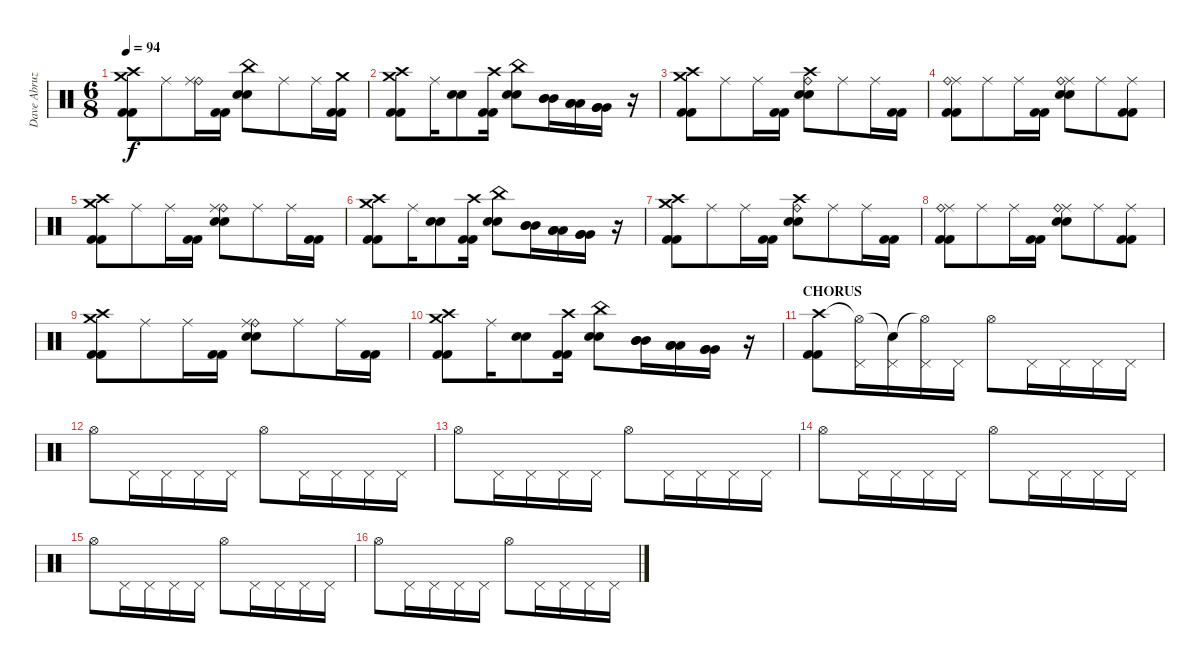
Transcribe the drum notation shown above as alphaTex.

\track ("Dave Abruzzese" "Dave Abruz") {instrument percussion}
\staff {score}
\articulation defaults
\ts (6 8)
\tempo 94
\clef neutral
\ks c
("Crash medium (hit)" "Crash high (hit)" "Kick (hit) 2" "Kick (hit) 2").8{dy f} "Ride (middle)".8 ("Ride (bell)" "Ride (middle)").16 ("Kick (hit) 2" "Kick (hit) 2").16 ("China (hit)" "Electric Snare (hit)" "Electric Snare (hit)").8 "Ride (middle)".8 "Ride (middle)".16 ("Crash medium (hit)" "Kick (hit) 2" "Kick (hit) 2").16 |
("Crash medium (hit)" "Crash high (hit)" "Kick (hit) 2" "Kick (hit) 2").8 "Ride (middle)".16 ("Electric Snare (hit)" "Electric Snare (hit)").8 ("Crash high (hit)" "Kick (hit) 2" "Kick (hit) 2").16 ("China (hit)" "Electric Snare (hit)" "Electric Snare (hit)").8 ("Mid Tom (hit)" "Mid Tom (hit)" "Mid Tom (hit)").16 ("Low Tom (hit)" "Low Tom (hit)" "Low Tom (hit)").16 ("Very Low Tom (hit)" "Very Low Tom (hit)" "Very Low Tom (hit)").16 r.16 |
("Crash medium (hit)" "Crash high (hit)" "Kick (hit) 2" "Kick (hit) 2").8 "Ride (middle)".8 "Ride (middle)".16 ("Kick (hit) 2" "Kick (hit) 2").16 ("Crash high (hit)" "Ride (bell)" "Electric Snare (hit)" "Electric Snare (hit)").8 "Ride (middle)".8 "Ride (middle)".16 ("Kick (hit) 2" "Kick (hit) 2").16 |
("Ride (middle)" "Ride (bell)" "Kick (hit) 2" "Kick (hit) 2").8 "Ride (middle)".8 "Ride (middle)".16 ("Kick (hit) 2" "Kick (hit) 2").16 ("Ride (middle)" "Ride (bell)" "Electric Snare (hit)" "Electric Snare (hit)").8 "Ride (middle)".8 ("Ride (middle)" "Kick (hit) 2" "Kick (hit) 2").8 |
("Crash medium (hit)" "Crash high (hit)" "Kick (hit) 2" "Kick (hit) 2").8 "Ride (middle)".8 "Ride (middle)".16 ("Kick (hit) 2" "Kick (hit) 2").16 ("Ride (bell)" "Ride (middle)" "Electric Snare (hit)" "Electric Snare (hit)").8 "Ride (middle)".8 "Ride (middle)".16 ("Kick (hit) 2" "Kick (hit) 2").16 |
("Crash medium (hit)" "Crash high (hit)" "Kick (hit) 2" "Kick (hit) 2").8 "Ride (middle)".16 ("Electric Snare (hit)" "Electric Snare (hit)").8 ("Crash high (hit)" "Kick (hit) 2" "Kick (hit) 2").16 ("China (hit)" "Electric Snare (hit)" "Electric Snare (hit)").8 ("Mid Tom (hit)" "Mid Tom (hit)" "Mid Tom (hit)").16 ("Low Tom (hit)" "Low Tom (hit)" "Low Tom (hit)").16 ("Very Low Tom (hit)" "Very Low Tom (hit)" "Very Low Tom (hit)").16 r.16 |
("Crash medium (hit)" "Crash high (hit)" "Kick (hit) 2" "Kick (hit) 2").8 "Ride (middle)".8 "Ride (middle)".16 ("Kick (hit) 2" "Kick (hit) 2").16 ("Crash high (hit)" "Ride (bell)" "Electric Snare (hit)" "Electric Snare (hit)").8 "Ride (middle)".8 "Ride (middle)".16 ("Kick (hit) 2" "Kick (hit) 2").16 |
("Ride (middle)" "Ride (bell)" "Kick (hit) 2" "Kick (hit) 2").8 "Ride (middle)".8 "Ride (middle)".16 ("Kick (hit) 2" "Kick (hit) 2").16 ("Ride (middle)" "Ride (bell)" "Electric Snare (hit)" "Electric Snare (hit)").8 "Ride (middle)".8 ("Ride (middle)" "Kick (hit) 2" "Kick (hit) 2").8 |
("Crash medium (hit)" "Crash high (hit)" "Kick (hit) 2" "Kick (hit) 2").8 "Ride (middle)".8 "Ride (middle)".16 ("Kick (hit) 2" "Kick (hit) 2").16 ("Ride (bell)" "Ride (middle)" "Electric Snare (hit)" "Electric Snare (hit)").8 "Ride (middle)".8 "Ride (middle)".16 ("Kick (hit) 2" "Kick (hit) 2").16 |
("Crash medium (hit)" "Crash high (hit)" "Kick (hit) 2" "Kick (hit) 2").8 "Ride (middle)".16 ("Electric Snare (hit)" "Electric Snare (hit)").8 ("Crash high (hit)" "Kick (hit) 2" "Kick (hit) 2").16 ("China (hit)" "Electric Snare (hit)" "Electric Snare (hit)").8 ("Mid Tom (hit)" "Mid Tom (hit)" "Mid Tom (hit)").16 ("Low Tom (hit)" "Low Tom (hit)" "Low Tom (hit)").16 ("Very Low Tom (hit)" "Very Low Tom (hit)" "Very Low Tom (hit)").16 r.16 |
\section ("" "CHORUS")
("Crash high (hit)" "Kick (hit) 2" "Kick (hit) 2").8 ("Hi-Hat (open)"{t} "Pedal Hi-Hat (hit)").16 ("Snare (hit)"{t} "Pedal Hi-Hat (hit)").16 ("Hi-Hat (open)"{t} "Pedal Hi-Hat (hit)").16 "Pedal Hi-Hat (hit)".16 "Hi-Hat (open)".8 "Pedal Hi-Hat (hit)".16 "Pedal Hi-Hat (hit)".16 "Pedal Hi-Hat (hit)".16 "Pedal Hi-Hat (hit)".16 |
"Hi-Hat (open)".8 "Pedal Hi-Hat (hit)".16 "Pedal Hi-Hat (hit)".16 "Pedal Hi-Hat (hit)".16 "Pedal Hi-Hat (hit)".16 "Hi-Hat (open)".8 "Pedal Hi-Hat (hit)".16 "Pedal Hi-Hat (hit)".16 "Pedal Hi-Hat (hit)".16 "Pedal Hi-Hat (hit)".16 |
"Hi-Hat (open)".8 "Pedal Hi-Hat (hit)".16 "Pedal Hi-Hat (hit)".16 "Pedal Hi-Hat (hit)".16 "Pedal Hi-Hat (hit)".16 "Hi-Hat (open)".8 "Pedal Hi-Hat (hit)".16 "Pedal Hi-Hat (hit)".16 "Pedal Hi-Hat (hit)".16 "Pedal Hi-Hat (hit)".16 |
"Hi-Hat (open)".8 "Pedal Hi-Hat (hit)".16 "Pedal Hi-Hat (hit)".16 "Pedal Hi-Hat (hit)".16 "Pedal Hi-Hat (hit)".16 "Hi-Hat (open)".8 "Pedal Hi-Hat (hit)".16 "Pedal Hi-Hat (hit)".16 "Pedal Hi-Hat (hit)".16 "Pedal Hi-Hat (hit)".16 |
"Hi-Hat (open)".8 "Pedal Hi-Hat (hit)".16 "Pedal Hi-Hat (hit)".16 "Pedal Hi-Hat (hit)".16 "Pedal Hi-Hat (hit)".16 "Hi-Hat (open)".8 "Pedal Hi-Hat (hit)".16 "Pedal Hi-Hat (hit)".16 "Pedal Hi-Hat (hit)".16 "Pedal Hi-Hat (hit)".16 |
"Hi-Hat (open)".8 "Pedal Hi-Hat (hit)".16 "Pedal Hi-Hat (hit)".16 "Pedal Hi-Hat (hit)".16 "Pedal Hi-Hat (hit)".16 "Hi-Hat (open)".8 "Pedal Hi-Hat (hit)".16 "Pedal Hi-Hat (hit)".16 "Pedal Hi-Hat (hit)".16 "Pedal Hi-Hat (hit)".16
